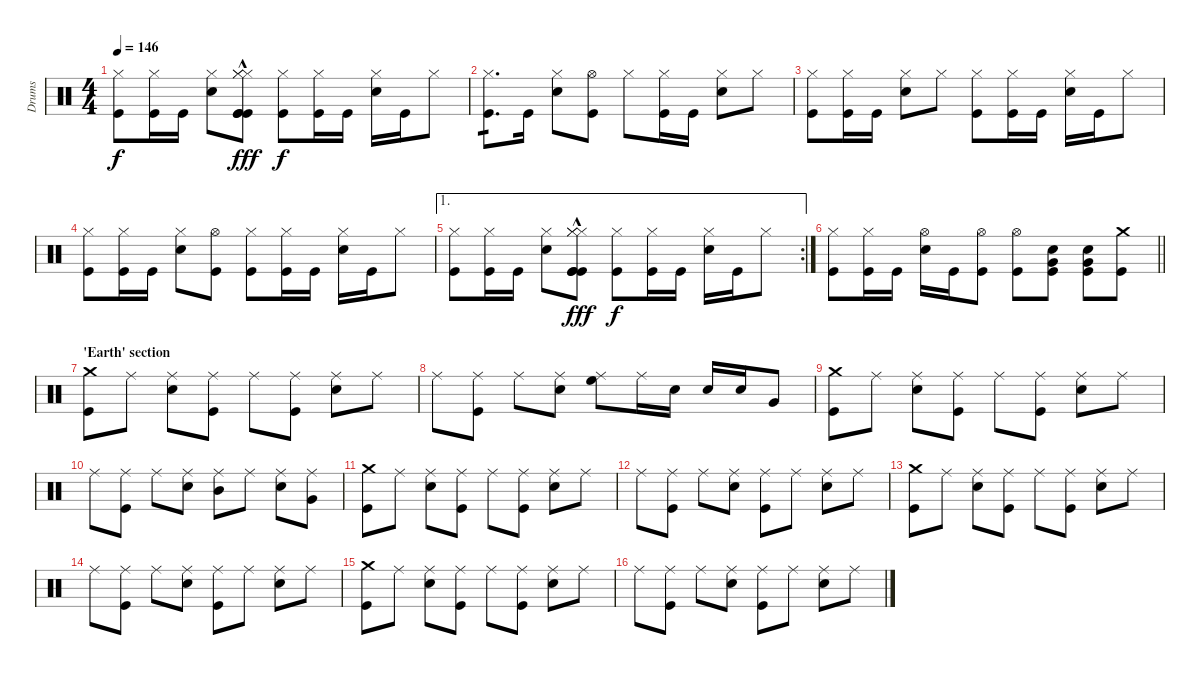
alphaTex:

\track ("Drums" "Drums") {instrument percussion}
\staff {score}
\articulation defaults
\ts (4 4)
\tempo 146
\clef neutral
\ks c
("Hi-Hat (closed)" "Kick (hit)").8{dy f} ("Hi-Hat (closed)" "Kick (hit)").16 "Kick (hit)".16 ("Hi-Hat (closed)" "Electric Snare (hit)").8 ("Hi-Hat (closed)"{hac} "Hi-Hat (closed)"{hac} "Hi-Hat (closed)"{hac} "Kick (hit)"{hac} "Kick (hit)"{hac} "Kick (hit)"{hac}).8{dy fff} ("Hi-Hat (closed)" "Kick (hit)").8{dy f} ("Hi-Hat (closed)" "Kick (hit)").16 "Kick (hit)".16 ("Hi-Hat (closed)" "Electric Snare (hit)").16 "Kick (hit)".16 "Hi-Hat (closed)".8 |
("Hi-Hat (closed)" "Kick (hit)").8{d tp 1} "Kick (hit)".16 ("Hi-Hat (closed)" "Electric Snare (hit)").8 ("Hi-Hat (open)" "Kick (hit)").8 "Hi-Hat (closed)".8 ("Hi-Hat (closed)" "Kick (hit)").16 "Kick (hit)".16 ("Hi-Hat (closed)" "Electric Snare (hit)").8 "Hi-Hat (closed)".8 |
("Hi-Hat (closed)" "Kick (hit)").8 ("Hi-Hat (closed)" "Kick (hit)").16 "Kick (hit)".16 ("Hi-Hat (closed)" "Electric Snare (hit)").8 "Hi-Hat (closed)".8 ("Hi-Hat (closed)" "Kick (hit)").8 ("Hi-Hat (closed)" "Kick (hit)").16 "Kick (hit)".16 ("Hi-Hat (closed)" "Electric Snare (hit)").16 "Kick (hit)".16 "Hi-Hat (closed)".8 |
("Hi-Hat (closed)" "Kick (hit)").8 ("Hi-Hat (closed)" "Kick (hit)").16 "Kick (hit)".16 ("Hi-Hat (closed)" "Electric Snare (hit)").8 ("Hi-Hat (open)" "Kick (hit)").8 ("Hi-Hat (closed)" "Kick (hit)").8 ("Hi-Hat (closed)" "Kick (hit)").16 "Kick (hit)".16 ("Hi-Hat (closed)" "Electric Snare (hit)").16 "Kick (hit)".16 "Hi-Hat (closed)".8 |
\ae 1
\rc 2
("Hi-Hat (closed)" "Kick (hit)").8 ("Hi-Hat (closed)" "Kick (hit)").16 "Kick (hit)".16 ("Hi-Hat (closed)" "Electric Snare (hit)").8 ("Hi-Hat (closed)"{hac} "Hi-Hat (closed)"{hac} "Hi-Hat (closed)"{hac} "Kick (hit)"{hac} "Kick (hit)"{hac} "Kick (hit)"{hac}).8{dy fff} ("Hi-Hat (closed)" "Kick (hit)").8{dy f} ("Hi-Hat (closed)" "Kick (hit)").16 "Kick (hit)".16 ("Hi-Hat (closed)" "Electric Snare (hit)").16 "Kick (hit)".16 "Hi-Hat (closed)".8 |
\barLineRight lightlight
("Hi-Hat (closed)" "Kick (hit)").8 ("Hi-Hat (closed)" "Kick (hit)").16 "Kick (hit)".16 ("Hi-Hat (open)" "Electric Snare (hit)").16 "Kick (hit)".16 ("Hi-Hat (open)" "Kick (hit)").8 ("Hi-Hat (open)" "Kick (hit)").8 ("Very Low Tom (hit)" "Electric Snare (hit)" "Kick (hit)").8 ("Very Low Tom (hit)" "Electric Snare (hit)" "Kick (hit)").8 ("Crash medium (hit)" "Kick (hit)").8 |
\section ("" "'Earth' section")
("Crash medium (hit)" "Kick (hit)").8 "Ride (middle)".8 ("Ride (middle)" "Electric Snare (hit)").8 ("Ride (middle)" "Kick (hit)").8 "Ride (middle)".8 ("Ride (middle)" "Kick (hit)").8 ("Ride (middle)" "Electric Snare (hit)").8 "Ride (middle)".8 |
"Ride (middle)".8 ("Ride (middle)" "Kick (hit)").8 "Ride (middle)".8 ("Ride (middle)" "Electric Snare (hit)").8 ("Ride (middle)" "High Floor Tom (hit)").8 "Ride (middle)".16 "Electric Snare (hit)".16 "Electric Snare (hit)".16 "Electric Snare (hit)".16 "Very Low Tom (hit)".8 |
("Crash medium (hit)" "Kick (hit)").8 "Ride (middle)".8 ("Ride (middle)" "Electric Snare (hit)").8 ("Ride (middle)" "Kick (hit)").8 "Ride (middle)".8 ("Ride (middle)" "Kick (hit)").8 ("Ride (middle)" "Electric Snare (hit)").8 "Ride (middle)".8 |
"Ride (middle)".8 ("Ride (middle)" "Kick (hit)").8 "Ride (middle)".8 ("Ride (middle)" "Electric Snare (hit)").8 ("Ride (middle)" "Mid Tom (hit)").8 "Ride (middle)".8 ("Ride (middle)" "Electric Snare (hit)").8 ("Ride (middle)" "Very Low Tom (hit)").8 |
("Crash medium (hit)" "Kick (hit)").8 "Ride (middle)".8 ("Ride (middle)" "Electric Snare (hit)").8 ("Ride (middle)" "Kick (hit)").8 "Ride (middle)".8 ("Ride (middle)" "Kick (hit)").8 ("Ride (middle)" "Electric Snare (hit)").8 "Ride (middle)".8 |
"Ride (middle)".8 ("Ride (middle)" "Kick (hit)").8 "Ride (middle)".8 ("Ride (middle)" "Electric Snare (hit)").8 ("Ride (middle)" "Kick (hit)").8 "Ride (middle)".8 ("Ride (middle)" "Electric Snare (hit)").8 "Ride (middle)".8 |
("Crash medium (hit)" "Kick (hit)").8 "Ride (middle)".8 ("Ride (middle)" "Electric Snare (hit)").8 ("Ride (middle)" "Kick (hit)").8 "Ride (middle)".8 ("Ride (middle)" "Kick (hit)").8 ("Ride (middle)" "Electric Snare (hit)").8 "Ride (middle)".8 |
"Ride (middle)".8 ("Ride (middle)" "Kick (hit)").8 "Ride (middle)".8 ("Ride (middle)" "Electric Snare (hit)").8 ("Ride (middle)" "Kick (hit)").8 "Ride (middle)".8 ("Ride (middle)" "Electric Snare (hit)").8 "Ride (middle)".8 |
("Crash medium (hit)" "Kick (hit)").8 "Ride (middle)".8 ("Ride (middle)" "Electric Snare (hit)").8 ("Ride (middle)" "Kick (hit)").8 "Ride (middle)".8 ("Ride (middle)" "Kick (hit)").8 ("Ride (middle)" "Electric Snare (hit)").8 "Ride (middle)".8 |
"Ride (middle)".8 ("Ride (middle)" "Kick (hit)").8 "Ride (middle)".8 ("Ride (middle)" "Electric Snare (hit)").8 ("Ride (middle)" "Kick (hit)").8 "Ride (middle)".8 ("Ride (middle)" "Electric Snare (hit)").8 "Ride (middle)".8
